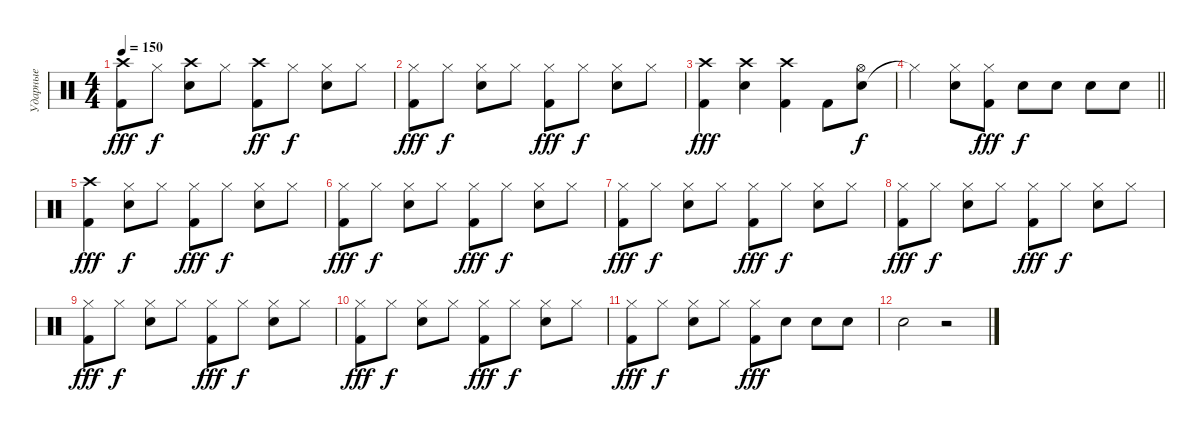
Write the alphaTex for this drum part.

\track ("Ударные" "Ударные") {instrument percussion}
\staff
\articulation defaults
\ts (4 4)
\tempo 150
\clef neutral
\ks c
("Kick (hit) 2" "Crash high (hit)").8{dy fff} "Hi-Hat (closed)".8{dy f} ("Snare (hit) 2" "Crash high (hit)").8 "Hi-Hat (closed)".8 ("Kick (hit) 2" "Crash high (hit)").8{dy ff} "Hi-Hat (closed)".8{dy f} ("Snare (hit) 2" "Hi-Hat (closed)").8 "Hi-Hat (closed)".8 |
("Kick (hit) 2" "Hi-Hat (closed)").8{dy fff} "Hi-Hat (closed)".8{dy f} ("Snare (hit) 2" "Hi-Hat (closed)").8 "Hi-Hat (closed)".8 ("Kick (hit) 2" "Hi-Hat (closed)").8{dy fff} "Hi-Hat (closed)".8{dy f} ("Snare (hit) 2" "Hi-Hat (closed)").8 "Hi-Hat (closed)".8 |
("Kick (hit) 2" "Crash high (hit)").4{dy fff} ("Snare (hit) 2" "Crash high (hit)").4 ("Kick (hit) 2" "Crash high (hit)").4 "Kick (hit) 2".8 ("Snare (hit) 2" "Hi-Hat (open)").8{dy f} |
\barLineRight lightlight "Hi-Hat (closed)"{t}.4
("Snare (hit) 2" "Hi-Hat (closed)").8 ("Kick (hit) 2" "Hi-Hat (closed)").8{dy fff} "Snare (hit) 2".8{dy f} "Snare (hit) 2".8 "Snare (hit) 2".8 "Snare (hit) 2".8 |
("Kick (hit) 2" "Crash high (hit)").4{dy fff} ("Snare (hit) 2" "Hi-Hat (closed)").8{dy f} "Hi-Hat (closed)".8 ("Kick (hit) 2" "Hi-Hat (closed)").8{dy fff} "Hi-Hat (closed)".8{dy f} ("Snare (hit) 2" "Hi-Hat (closed)").8 "Hi-Hat (closed)".8 |
("Kick (hit) 2" "Hi-Hat (closed)").8{dy fff} "Hi-Hat (closed)".8{dy f} ("Snare (hit) 2" "Hi-Hat (closed)").8 "Hi-Hat (closed)".8 ("Kick (hit) 2" "Hi-Hat (closed)").8{dy fff} "Hi-Hat (closed)".8{dy f} ("Snare (hit) 2" "Hi-Hat (closed)").8 "Hi-Hat (closed)".8 |
("Kick (hit) 2" "Hi-Hat (closed)").8{dy fff} "Hi-Hat (closed)".8{dy f} ("Snare (hit) 2" "Hi-Hat (closed)").8 "Hi-Hat (closed)".8 ("Kick (hit) 2" "Hi-Hat (closed)").8{dy fff} "Hi-Hat (closed)".8{dy f} ("Snare (hit) 2" "Hi-Hat (closed)").8 "Hi-Hat (closed)".8 |
("Kick (hit) 2" "Hi-Hat (closed)").8{dy fff} "Hi-Hat (closed)".8{dy f} ("Snare (hit) 2" "Hi-Hat (closed)").8 "Hi-Hat (closed)".8 ("Kick (hit) 2" "Hi-Hat (closed)").8{dy fff} "Hi-Hat (closed)".8{dy f} ("Snare (hit) 2" "Hi-Hat (closed)").8 "Hi-Hat (closed)".8 |
("Kick (hit) 2" "Hi-Hat (closed)").8{dy fff} "Hi-Hat (closed)".8{dy f} ("Snare (hit) 2" "Hi-Hat (closed)").8 "Hi-Hat (closed)".8 ("Kick (hit) 2" "Hi-Hat (closed)").8{dy fff} "Hi-Hat (closed)".8{dy f} ("Snare (hit) 2" "Hi-Hat (closed)").8 "Hi-Hat (closed)".8 |
("Kick (hit) 2" "Hi-Hat (closed)").8{dy fff} "Hi-Hat (closed)".8{dy f} ("Snare (hit) 2" "Hi-Hat (closed)").8 "Hi-Hat (closed)".8 ("Kick (hit) 2" "Hi-Hat (closed)").8{dy fff} "Hi-Hat (closed)".8{dy f} ("Snare (hit) 2" "Hi-Hat (closed)").8 "Hi-Hat (closed)".8 |
("Kick (hit) 2" "Hi-Hat (closed)").8{dy fff} "Hi-Hat (closed)".8{dy f} ("Snare (hit) 2" "Hi-Hat (closed)").8 "Hi-Hat (closed)".8 ("Kick (hit) 2" "Hi-Hat (closed)").8{dy fff} "Snare (hit) 2".8 "Snare (hit) 2".8 "Snare (hit) 2".8 |
"Snare (hit) 2".2 r.2
